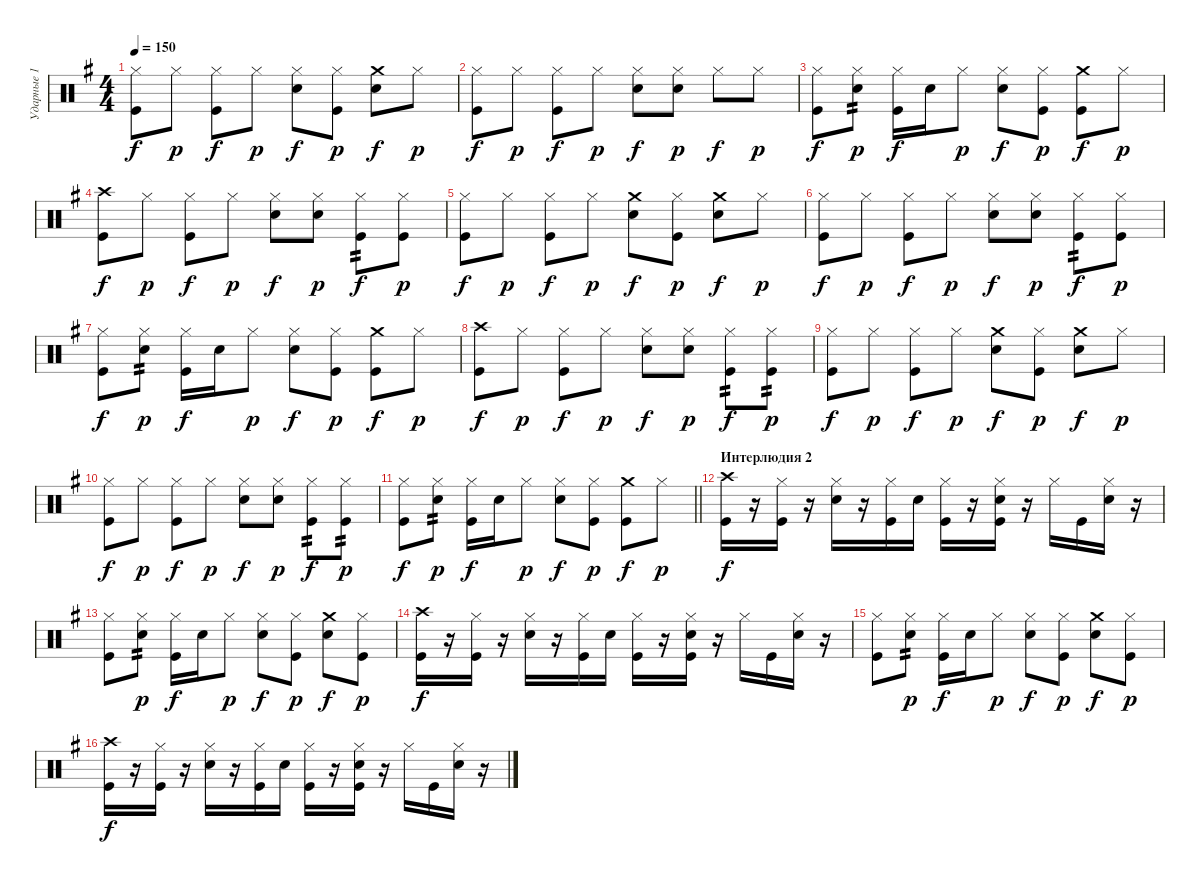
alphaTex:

\track ("Ударные 1" "Ударные 1") {instrument percussion}
\staff {score}
\articulation defaults
\ts (4 4)
\tempo 150
\clef neutral
\ks eminor
("Hi-Hat (closed)" "Kick (hit)").8{dy f} "Hi-Hat (closed)".8{dy p} ("Hi-Hat (closed)" "Kick (hit)").8{dy f} "Hi-Hat (closed)".8{dy p} ("Hi-Hat (closed)" "Snare (hit) 2").8{dy f} ("Hi-Hat (closed)" "Kick (hit)").8{dy p} ("Crash medium (hit)" "Snare (hit) 2").8{dy f} "Hi-Hat (closed)".8{dy p} |
("Hi-Hat (closed)" "Kick (hit)").8{dy f} "Hi-Hat (closed)".8{dy p} ("Hi-Hat (closed)" "Kick (hit)").8{dy f} "Hi-Hat (closed)".8{dy p} ("Hi-Hat (closed)" "Snare (hit) 2").8{dy f} ("Hi-Hat (closed)" "Snare (hit) 2").8{dy p} "Hi-Hat (closed)".8{dy f} "Hi-Hat (closed)".8{dy p} |
("Hi-Hat (closed)" "Kick (hit)").8{dy f} ("Hi-Hat (closed)" "Snare (hit) 2").8{tp 2 dy p} ("Hi-Hat (closed)" "Kick (hit)").16{dy f} "Snare (hit) 2".16 "Hi-Hat (closed)".8{dy p} ("Hi-Hat (closed)" "Snare (hit) 2").8{dy f} ("Hi-Hat (closed)" "Kick (hit)").8{dy p} ("Crash medium (hit)" "Kick (hit)").8{dy f} "Hi-Hat (closed)".8{dy p} |
("Crash high (hit)" "Kick (hit)").8{dy f} "Hi-Hat (closed)".8{dy p} ("Hi-Hat (closed)" "Kick (hit)").8{dy f} "Hi-Hat (closed)".8{dy p} ("Hi-Hat (closed)" "Snare (hit) 2").8{dy f} ("Hi-Hat (closed)" "Snare (hit) 2").8{dy p} ("Hi-Hat (closed)" "Kick (hit)").8{tp 2 dy f} ("Hi-Hat (closed)" "Kick (hit)").8{dy p} |
("Hi-Hat (closed)" "Kick (hit)").8{dy f} "Hi-Hat (closed)".8{dy p} ("Hi-Hat (closed)" "Kick (hit)").8{dy f} "Hi-Hat (closed)".8{dy p} ("Crash medium (hit)" "Snare (hit) 2").8{dy f} ("Hi-Hat (closed)" "Kick (hit)").8{dy p} ("Crash medium (hit)" "Snare (hit) 2").8{dy f} "Hi-Hat (closed)".8{dy p} |
("Hi-Hat (closed)" "Kick (hit)").8{dy f} "Hi-Hat (closed)".8{dy p} ("Hi-Hat (closed)" "Kick (hit)").8{dy f} "Hi-Hat (closed)".8{dy p} ("Hi-Hat (closed)" "Snare (hit) 2").8{dy f} ("Hi-Hat (closed)" "Snare (hit) 2").8{dy p} ("Hi-Hat (closed)" "Kick (hit)").8{tp 2 dy f} ("Hi-Hat (closed)" "Kick (hit)").8{dy p} |
("Hi-Hat (closed)" "Kick (hit)").8{dy f} ("Hi-Hat (closed)" "Snare (hit) 2").8{tp 2 dy p} ("Hi-Hat (closed)" "Kick (hit)").16{dy f} "Snare (hit) 2".16 "Hi-Hat (closed)".8{dy p} ("Hi-Hat (closed)" "Snare (hit) 2").8{dy f} ("Hi-Hat (closed)" "Kick (hit)").8{dy p} ("Crash medium (hit)" "Kick (hit)").8{dy f} "Hi-Hat (closed)".8{dy p} |
("Crash high (hit)" "Kick (hit)").8{dy f} "Hi-Hat (closed)".8{dy p} ("Hi-Hat (closed)" "Kick (hit)").8{dy f} "Hi-Hat (closed)".8{dy p} ("Hi-Hat (closed)" "Snare (hit) 2").8{dy f} ("Hi-Hat (closed)" "Snare (hit) 2").8{dy p} ("Hi-Hat (closed)" "Kick (hit)").8{tp 2 dy f} ("Hi-Hat (closed)" "Kick (hit)").8{tp 2 dy p} |
("Hi-Hat (closed)" "Kick (hit)").8{dy f} "Hi-Hat (closed)".8{dy p} ("Hi-Hat (closed)" "Kick (hit)").8{dy f} "Hi-Hat (closed)".8{dy p} ("Crash medium (hit)" "Snare (hit) 2").8{dy f} ("Hi-Hat (closed)" "Kick (hit)").8{dy p} ("Crash medium (hit)" "Snare (hit) 2").8{dy f} "Hi-Hat (closed)".8{dy p} |
("Hi-Hat (closed)" "Kick (hit)").8{dy f} "Hi-Hat (closed)".8{dy p} ("Hi-Hat (closed)" "Kick (hit)").8{dy f} "Hi-Hat (closed)".8{dy p} ("Hi-Hat (closed)" "Snare (hit) 2").8{dy f} ("Hi-Hat (closed)" "Snare (hit) 2").8{dy p} ("Hi-Hat (closed)" "Kick (hit)").8{tp 2 dy f} ("Hi-Hat (closed)" "Kick (hit)").8{tp 2 dy p} |
\barLineRight lightlight
("Hi-Hat (closed)" "Kick (hit)").8{dy f} ("Hi-Hat (closed)" "Snare (hit) 2").8{tp 2 dy p} ("Hi-Hat (closed)" "Kick (hit)").16{dy f} "Snare (hit) 2".16 "Hi-Hat (closed)".8{dy p} ("Hi-Hat (closed)" "Snare (hit) 2").8{dy f} ("Hi-Hat (closed)" "Kick (hit)").8{dy p} ("Crash medium (hit)" "Kick (hit)").8{dy f} "Hi-Hat (closed)".8{dy p} |
\section ("" "Интерлюдия 2")
("Crash high (hit)" "Kick (hit)").16{dy f} r.16 ("Hi-Hat (closed)" "Kick (hit)").16 r.16 ("Hi-Hat (closed)" "Snare (hit) 2").16 r.16 ("Hi-Hat (closed)" "Kick (hit)").16 "Snare (hit) 2".16 ("Hi-Hat (closed)" "Kick (hit)").16 r.16 ("Hi-Hat (closed)" "Snare (hit) 2" "Kick (hit)").16 r.16 "Hi-Hat (closed)".16 "Kick (hit)".16 ("Hi-Hat (closed)" "Snare (hit) 2").16 r.16 |
("Hi-Hat (closed)" "Kick (hit)").8 ("Hi-Hat (closed)" "Snare (hit) 2").8{tp 2 dy p} ("Hi-Hat (closed)" "Kick (hit)").16{dy f} "Snare (hit) 2".16 "Hi-Hat (closed)".8{dy p} ("Hi-Hat (closed)" "Snare (hit) 2").8{dy f} ("Hi-Hat (closed)" "Kick (hit)").8{dy p} ("Crash medium (hit)" "Snare (hit) 2").8{dy f} ("Hi-Hat (closed)" "Kick (hit)").8{dy p} |
("Crash high (hit)" "Kick (hit)").16{dy f} r.16 ("Hi-Hat (closed)" "Kick (hit)").16 r.16 ("Hi-Hat (closed)" "Snare (hit) 2").16 r.16 ("Hi-Hat (closed)" "Kick (hit)").16 "Snare (hit) 2".16 ("Hi-Hat (closed)" "Kick (hit)").16 r.16 ("Hi-Hat (closed)" "Snare (hit) 2" "Kick (hit)").16 r.16 "Hi-Hat (closed)".16 "Kick (hit)".16 ("Hi-Hat (closed)" "Snare (hit) 2").16 r.16 |
("Hi-Hat (closed)" "Kick (hit)").8 ("Hi-Hat (closed)" "Snare (hit) 2").8{tp 2 dy p} ("Hi-Hat (closed)" "Kick (hit)").16{dy f} "Snare (hit) 2".16 "Hi-Hat (closed)".8{dy p} ("Hi-Hat (closed)" "Snare (hit) 2").8{dy f} ("Hi-Hat (closed)" "Kick (hit)").8{dy p} ("Crash medium (hit)" "Snare (hit) 2").8{dy f} ("Hi-Hat (closed)" "Kick (hit)").8{dy p} |
("Crash high (hit)" "Kick (hit)").16{dy f} r.16 ("Hi-Hat (closed)" "Kick (hit)").16 r.16 ("Hi-Hat (closed)" "Snare (hit) 2").16 r.16 ("Hi-Hat (closed)" "Kick (hit)").16 "Snare (hit) 2".16 ("Hi-Hat (closed)" "Kick (hit)").16 r.16 ("Hi-Hat (closed)" "Snare (hit) 2" "Kick (hit)").16 r.16 "Hi-Hat (closed)".16 "Kick (hit)".16 ("Hi-Hat (closed)" "Snare (hit) 2").16 r.16
